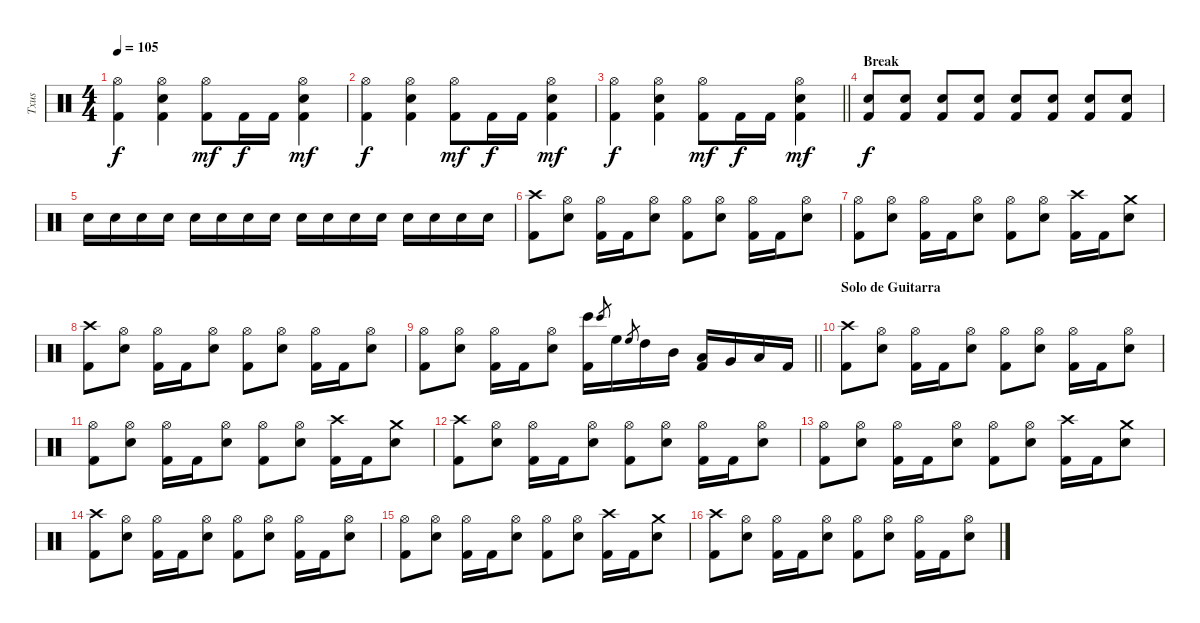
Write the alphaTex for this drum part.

\track ("Txus" "Txus") {instrument percussion}
\staff {score}
\articulation defaults
\ts (4 4)
\tempo 105
\clef neutral
\ks c
("Hi-Hat (open)" "Kick (hit) 2").4{dy f} ("Hi-Hat (open)" "Electric Snare (hit)" "Kick (hit) 2").4 ("Hi-Hat (open)" "Kick (hit) 2").8{dy mf} "Kick (hit) 2".16{dy f} "Kick (hit) 2".16 ("Hi-Hat (open)" "Electric Snare (hit)" "Kick (hit) 2").4{dy mf} |
("Hi-Hat (open)" "Kick (hit) 2").4{dy f} ("Hi-Hat (open)" "Electric Snare (hit)" "Kick (hit) 2").4 ("Hi-Hat (open)" "Kick (hit) 2").8{dy mf} "Kick (hit) 2".16{dy f} "Kick (hit) 2".16 ("Hi-Hat (open)" "Electric Snare (hit)" "Kick (hit) 2").4{dy mf} |
\barLineRight lightlight
("Hi-Hat (open)" "Kick (hit) 2").4{dy f} ("Hi-Hat (open)" "Electric Snare (hit)" "Kick (hit) 2").4 ("Hi-Hat (open)" "Kick (hit) 2").8{dy mf} "Kick (hit) 2".16{dy f} "Kick (hit) 2".16 ("Hi-Hat (open)" "Electric Snare (hit)" "Kick (hit) 2").4{dy mf} |
\section ("" "Break")
("Electric Snare (hit)" "Kick (hit) 2").8{dy f} ("Electric Snare (hit)" "Kick (hit) 2").8 ("Electric Snare (hit)" "Kick (hit) 2").8 ("Electric Snare (hit)" "Kick (hit) 2").8 ("Electric Snare (hit)" "Kick (hit) 2").8 ("Electric Snare (hit)" "Kick (hit) 2").8 ("Electric Snare (hit)" "Kick (hit) 2").8 ("Electric Snare (hit)" "Kick (hit) 2").8 |
"Electric Snare (hit)".16 "Electric Snare (hit)".16 "Electric Snare (hit)".16 "Electric Snare (hit)".16 "Electric Snare (hit)".16 "Electric Snare (hit)".16 "Electric Snare (hit)".16 "Electric Snare (hit)".16 "Electric Snare (hit)".16 "Electric Snare (hit)".16 "Electric Snare (hit)".16 "Electric Snare (hit)".16 "Electric Snare (hit)".16 "Electric Snare (hit)".16 "Electric Snare (hit)".16 "Electric Snare (hit)".16 |
("Crash high (hit)" "Kick (hit) 2").8 ("Hi-Hat (open)" "Electric Snare (hit)").8 ("Hi-Hat (open)" "Kick (hit) 2").16 "Kick (hit) 2".16 ("Hi-Hat (open)" "Electric Snare (hit)").8 ("Hi-Hat (open)" "Kick (hit) 2").8 ("Hi-Hat (open)" "Electric Snare (hit)").8 ("Hi-Hat (open)" "Kick (hit) 2").16 "Kick (hit) 2".16 ("Hi-Hat (open)" "Electric Snare (hit)").8 |
("Hi-Hat (open)" "Kick (hit) 2").8 ("Hi-Hat (open)" "Electric Snare (hit)").8 ("Hi-Hat (open)" "Kick (hit) 2").16 "Kick (hit) 2".16 ("Hi-Hat (open)" "Electric Snare (hit)").8 ("Hi-Hat (open)" "Kick (hit) 2").8 ("Hi-Hat (open)" "Electric Snare (hit)").8 ("Crash high (hit)" "Kick (hit) 2").16 "Kick (hit) 2".16 ("Crash medium (hit)" "Electric Snare (hit)").8 |
("Crash high (hit)" "Kick (hit) 2").8 ("Hi-Hat (open)" "Electric Snare (hit)").8 ("Hi-Hat (open)" "Kick (hit) 2").16 "Kick (hit) 2".16 ("Hi-Hat (open)" "Electric Snare (hit)").8 ("Hi-Hat (open)" "Kick (hit) 2").8 ("Hi-Hat (open)" "Electric Snare (hit)").8 ("Hi-Hat (open)" "Kick (hit) 2").16 "Kick (hit) 2".16 ("Hi-Hat (open)" "Electric Snare (hit)").8 |
\barLineRight lightlight
("Hi-Hat (open)" "Kick (hit) 2").8 ("Hi-Hat (open)" "Electric Snare (hit)").8 ("Hi-Hat (open)" "Kick (hit) 2").16 "Kick (hit) 2".16 ("Hi-Hat (open)" "Electric Snare (hit)").8 ("Bongo High (hit)" "Kick (hit) 2").16 "Bongo High (hit)".8{gr} "High Floor Tom (hit)".16 "High Floor Tom (hit)".8{gr} "High Tom (hit)".16 "Mid Tom (hit)".16 ("Low Tom (hit)" "Kick (hit) 2").16 "Very Low Tom (hit)".16 "Low Floor Tom (hit)".16 "Kick (hit) 2".16 |
\section ("" "Solo de Guitarra")
("Crash high (hit)" "Kick (hit) 2").8 ("Hi-Hat (open)" "Electric Snare (hit)").8 ("Hi-Hat (open)" "Kick (hit) 2").16 "Kick (hit) 2".16 ("Hi-Hat (open)" "Electric Snare (hit)").8 ("Hi-Hat (open)" "Kick (hit) 2").8 ("Hi-Hat (open)" "Electric Snare (hit)").8 ("Hi-Hat (open)" "Kick (hit) 2").16 "Kick (hit) 2".16 ("Hi-Hat (open)" "Electric Snare (hit)").8 |
("Hi-Hat (open)" "Kick (hit) 2").8 ("Hi-Hat (open)" "Electric Snare (hit)").8 ("Hi-Hat (open)" "Kick (hit) 2").16 "Kick (hit) 2".16 ("Hi-Hat (open)" "Electric Snare (hit)").8 ("Hi-Hat (open)" "Kick (hit) 2").8 ("Hi-Hat (open)" "Electric Snare (hit)").8 ("Crash high (hit)" "Kick (hit) 2").16 "Kick (hit) 2".16 ("Crash medium (hit)" "Electric Snare (hit)").8 |
("Crash high (hit)" "Kick (hit) 2").8 ("Hi-Hat (open)" "Electric Snare (hit)").8 ("Hi-Hat (open)" "Kick (hit) 2").16 "Kick (hit) 2".16 ("Hi-Hat (open)" "Electric Snare (hit)").8 ("Hi-Hat (open)" "Kick (hit) 2").8 ("Hi-Hat (open)" "Electric Snare (hit)").8 ("Hi-Hat (open)" "Kick (hit) 2").16 "Kick (hit) 2".16 ("Hi-Hat (open)" "Electric Snare (hit)").8 |
("Hi-Hat (open)" "Kick (hit) 2").8 ("Hi-Hat (open)" "Electric Snare (hit)").8 ("Hi-Hat (open)" "Kick (hit) 2").16 "Kick (hit) 2".16 ("Hi-Hat (open)" "Electric Snare (hit)").8 ("Hi-Hat (open)" "Kick (hit) 2").8 ("Hi-Hat (open)" "Electric Snare (hit)").8 ("Crash high (hit)" "Kick (hit) 2").16 "Kick (hit) 2".16 ("Crash medium (hit)" "Electric Snare (hit)").8 |
("Crash high (hit)" "Kick (hit) 2").8 ("Hi-Hat (open)" "Electric Snare (hit)").8 ("Hi-Hat (open)" "Kick (hit) 2").16 "Kick (hit) 2".16 ("Hi-Hat (open)" "Electric Snare (hit)").8 ("Hi-Hat (open)" "Kick (hit) 2").8 ("Hi-Hat (open)" "Electric Snare (hit)").8 ("Hi-Hat (open)" "Kick (hit) 2").16 "Kick (hit) 2".16 ("Hi-Hat (open)" "Electric Snare (hit)").8 |
("Hi-Hat (open)" "Kick (hit) 2").8 ("Hi-Hat (open)" "Electric Snare (hit)").8 ("Hi-Hat (open)" "Kick (hit) 2").16 "Kick (hit) 2".16 ("Hi-Hat (open)" "Electric Snare (hit)").8 ("Hi-Hat (open)" "Kick (hit) 2").8 ("Hi-Hat (open)" "Electric Snare (hit)").8 ("Crash high (hit)" "Kick (hit) 2").16 "Kick (hit) 2".16 ("Crash medium (hit)" "Electric Snare (hit)").8 |
("Crash high (hit)" "Kick (hit) 2").8 ("Hi-Hat (open)" "Electric Snare (hit)").8 ("Hi-Hat (open)" "Kick (hit) 2").16 "Kick (hit) 2".16 ("Hi-Hat (open)" "Electric Snare (hit)").8 ("Hi-Hat (open)" "Kick (hit) 2").8 ("Hi-Hat (open)" "Electric Snare (hit)").8 ("Hi-Hat (open)" "Kick (hit) 2").16 "Kick (hit) 2".16 ("Hi-Hat (open)" "Electric Snare (hit)").8
